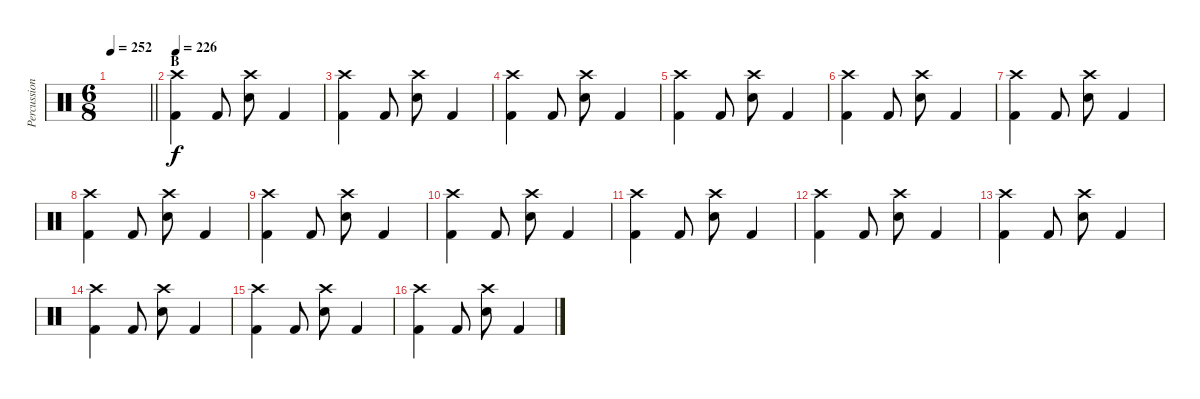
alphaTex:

\track ("Percussion" "Percussion") {instrument percussion}
\staff {score}
\articulation defaults
\ts (6 8)
\tempo 252
\clef neutral
\barLineRight lightlight
\ks c
|
\section ("" "B")
\tempo 226
("Crash high (hit)" "Kick (hit) 2").4 "Kick (hit) 2".8 ("Crash high (hit)" "Electric Snare (hit)").8 "Kick (hit) 2".4 |
("Crash high (hit)" "Kick (hit) 2").4 "Kick (hit) 2".8 ("Crash high (hit)" "Electric Snare (hit)").8 "Kick (hit) 2".4 |
("Crash high (hit)" "Kick (hit) 2").4 "Kick (hit) 2".8 ("Crash high (hit)" "Electric Snare (hit)").8 "Kick (hit) 2".4 |
("Crash high (hit)" "Kick (hit) 2").4 "Kick (hit) 2".8 ("Crash high (hit)" "Electric Snare (hit)").8 "Kick (hit) 2".4 |
("Crash high (hit)" "Kick (hit) 2").4 "Kick (hit) 2".8 ("Crash high (hit)" "Electric Snare (hit)").8 "Kick (hit) 2".4 |
("Crash high (hit)" "Kick (hit) 2").4 "Kick (hit) 2".8 ("Crash high (hit)" "Electric Snare (hit)").8 "Kick (hit) 2".4 |
("Crash high (hit)" "Kick (hit) 2").4 "Kick (hit) 2".8 ("Crash high (hit)" "Electric Snare (hit)").8 "Kick (hit) 2".4 |
("Crash high (hit)" "Kick (hit) 2").4 "Kick (hit) 2".8 ("Crash high (hit)" "Electric Snare (hit)").8 "Kick (hit) 2".4 |
("Crash high (hit)" "Kick (hit) 2").4 "Kick (hit) 2".8 ("Crash high (hit)" "Electric Snare (hit)").8 "Kick (hit) 2".4 |
("Crash high (hit)" "Kick (hit) 2").4 "Kick (hit) 2".8 ("Crash high (hit)" "Electric Snare (hit)").8 "Kick (hit) 2".4 |
("Crash high (hit)" "Kick (hit) 2").4 "Kick (hit) 2".8 ("Crash high (hit)" "Electric Snare (hit)").8 "Kick (hit) 2".4 |
("Crash high (hit)" "Kick (hit) 2").4 "Kick (hit) 2".8 ("Crash high (hit)" "Electric Snare (hit)").8 "Kick (hit) 2".4 |
("Crash high (hit)" "Kick (hit) 2").4 "Kick (hit) 2".8 ("Crash high (hit)" "Electric Snare (hit)").8 "Kick (hit) 2".4 |
("Crash high (hit)" "Kick (hit) 2").4 "Kick (hit) 2".8 ("Crash high (hit)" "Electric Snare (hit)").8 "Kick (hit) 2".4 |
("Crash high (hit)" "Kick (hit) 2").4 "Kick (hit) 2".8 ("Crash high (hit)" "Electric Snare (hit)").8 "Kick (hit) 2".4
